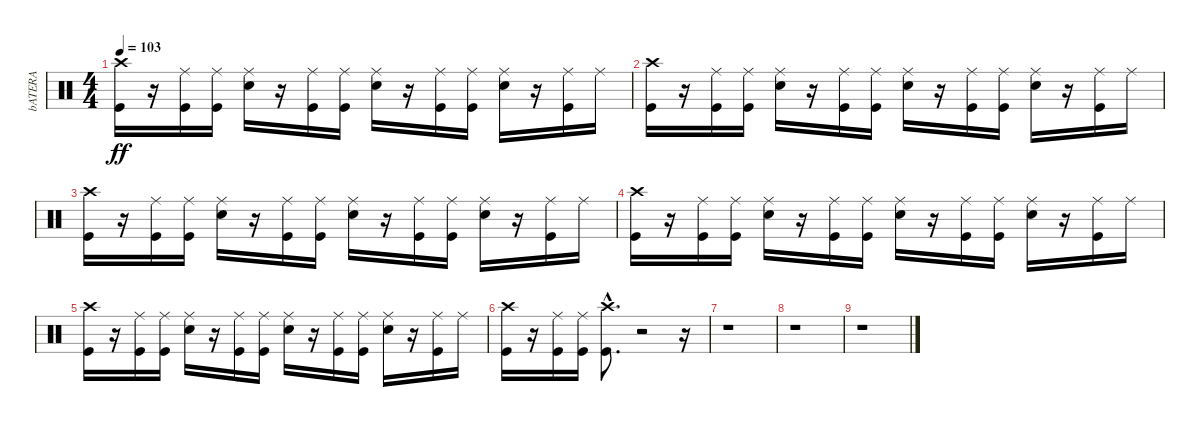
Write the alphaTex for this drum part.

\track ("bATERA" "bATERA") {instrument percussion}
\staff {score}
\articulation defaults
\ts (4 4)
\tempo 103
\clef neutral
\ks c
("Kick (hit)" "Crash high (hit)").16{dy ff} r.16 ("Kick (hit)" "Ride (middle)").16 ("Kick (hit)" "Ride (middle)").16 ("Ride (middle)" "Snare (hit) 2").16 r.16 ("Kick (hit)" "Ride (middle)").16 ("Kick (hit)" "Ride (middle)").16 ("Ride (middle)" "Snare (hit) 2").16 r.16 ("Kick (hit)" "Ride (middle)").16 ("Kick (hit)" "Ride (middle)").16 ("Ride (middle)" "Snare (hit) 2").16 r.16 ("Kick (hit)" "Ride (middle)").16 "Ride (middle)".16 |
("Kick (hit)" "Crash high (hit)").16 r.16 ("Kick (hit)" "Ride (middle)").16 ("Kick (hit)" "Ride (middle)").16 ("Ride (middle)" "Snare (hit) 2").16 r.16 ("Kick (hit)" "Ride (middle)").16 ("Kick (hit)" "Ride (middle)").16 ("Ride (middle)" "Snare (hit) 2").16 r.16 ("Kick (hit)" "Ride (middle)").16 ("Kick (hit)" "Ride (middle)").16 ("Ride (middle)" "Snare (hit) 2").16 r.16 ("Kick (hit)" "Ride (middle)").16 "Ride (middle)".16 |
("Kick (hit)" "Crash high (hit)").16 r.16 ("Kick (hit)" "Ride (middle)").16 ("Kick (hit)" "Ride (middle)").16 ("Ride (middle)" "Snare (hit) 2").16 r.16 ("Kick (hit)" "Ride (middle)").16 ("Kick (hit)" "Ride (middle)").16 ("Ride (middle)" "Snare (hit) 2").16 r.16 ("Kick (hit)" "Ride (middle)").16 ("Kick (hit)" "Ride (middle)").16 ("Ride (middle)" "Snare (hit) 2").16 r.16 ("Kick (hit)" "Ride (middle)").16 "Ride (middle)".16 |
("Kick (hit)" "Crash high (hit)").16 r.16 ("Kick (hit)" "Ride (middle)").16 ("Kick (hit)" "Ride (middle)").16 ("Ride (middle)" "Snare (hit) 2").16 r.16 ("Kick (hit)" "Ride (middle)").16 ("Kick (hit)" "Ride (middle)").16 ("Ride (middle)" "Snare (hit) 2").16 r.16 ("Kick (hit)" "Ride (middle)").16 ("Kick (hit)" "Ride (middle)").16 ("Ride (middle)" "Snare (hit) 2").16 r.16 ("Kick (hit)" "Ride (middle)").16 "Ride (middle)".16 |
("Kick (hit)" "Crash high (hit)").16 r.16 ("Kick (hit)" "Ride (middle)").16 ("Kick (hit)" "Ride (middle)").16 ("Ride (middle)" "Snare (hit) 2").16 r.16 ("Kick (hit)" "Ride (middle)").16 ("Kick (hit)" "Ride (middle)").16 ("Ride (middle)" "Snare (hit) 2").16 r.16 ("Kick (hit)" "Ride (middle)").16 ("Kick (hit)" "Ride (middle)").16 ("Ride (middle)" "Snare (hit) 2").16 r.16 ("Kick (hit)" "Ride (middle)").16 "Ride (middle)".16 |
("Kick (hit)" "Crash high (hit)").16 r.16 ("Kick (hit)" "Ride (middle)").16 ("Kick (hit)" "Ride (middle)").16 ("Crash high (hit)"{hac} "Kick (hit)").8{d} r.2 r.16 |
r.1 |
r.1 |
r.1
